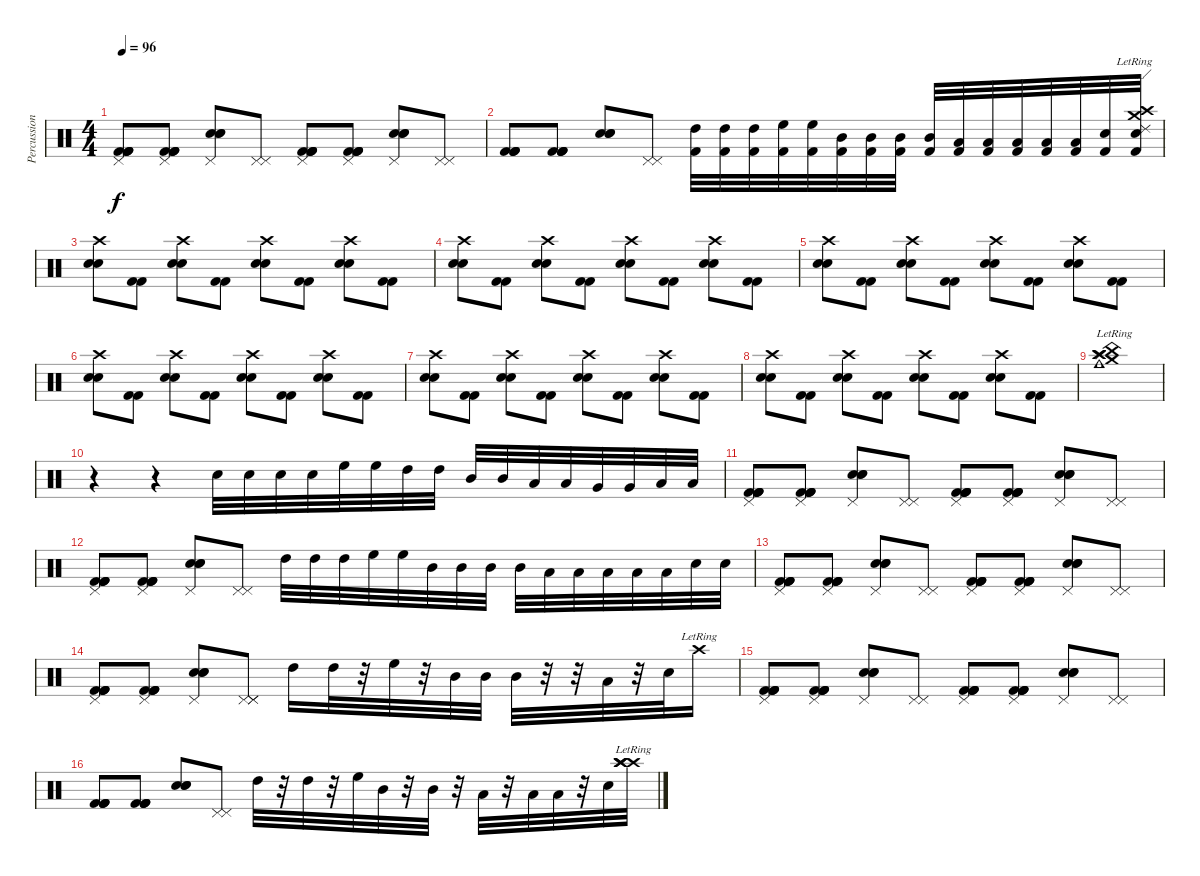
\track ("Percussion" "Percussion") {instrument percussion}
\staff {score}
\articulation defaults
\ts (4 4)
\tempo 96
\clef neutral
\ks c
("Pedal Hi-Hat (hit)" "Kick (hit) 2" "Kick (hit) 2" "Kick (hit) 2" "Kick (hit) 2").8{dy f} ("Pedal Hi-Hat (hit)" "Kick (hit) 2" "Kick (hit) 2" "Kick (hit) 2" "Kick (hit) 2").8 ("Pedal Hi-Hat (hit)" "Electric Snare (hit)" "Electric Snare (hit)" "Electric Snare (hit)").8 ("Pedal Hi-Hat (hit)" "Pedal Hi-Hat (hit)").8 ("Pedal Hi-Hat (hit)" "Kick (hit) 2" "Kick (hit) 2" "Kick (hit) 2" "Kick (hit) 2").8 ("Pedal Hi-Hat (hit)" "Kick (hit) 2" "Kick (hit) 2" "Kick (hit) 2" "Kick (hit) 2").8 ("Pedal Hi-Hat (hit)" "Electric Snare (hit)" "Electric Snare (hit)" "Electric Snare (hit)").8 ("Pedal Hi-Hat (hit)" "Pedal Hi-Hat (hit)").8 |
("Kick (hit) 2" "Kick (hit) 2" "Kick (hit) 2" "Kick (hit) 2").8 ("Kick (hit) 2" "Kick (hit) 2" "Kick (hit) 2" "Kick (hit) 2").8 ("Electric Snare (hit)" "Electric Snare (hit)" "Electric Snare (hit)").8 ("Pedal Hi-Hat (hit)" "Pedal Hi-Hat (hit)").8 ("Kick (hit) 2" "High Tom (hit)").32 ("Kick (hit) 2" "High Tom (hit)").32 ("Kick (hit) 2" "High Tom (hit)").32 ("Kick (hit) 2" "High Floor Tom (hit)").32 ("Kick (hit) 2" "High Floor Tom (hit)").32 ("Kick (hit) 2" "Mid Tom (hit)").32 ("Kick (hit) 2" "Mid Tom (hit)").32 ("Kick (hit) 2" "Mid Tom (hit)").32 ("Kick (hit) 2" "Mid Tom (hit)").32 ("Kick (hit) 2" "Low Tom (hit)").32 ("Kick (hit) 2" "Low Tom (hit)").32 ("Kick (hit) 2" "Low Tom (hit)").32 ("Kick (hit) 2" "Low Floor Tom (hit)").32 ("Kick (hit) 2" "Low Floor Tom (hit)").32 ("Kick (hit) 2" "Electric Snare (hit)").32 ("Kick (hit) 2"{lr} "Electric Snare (hit)"{lr} "Crash high (hit)"{lr} "Crash medium (hit)"{lr} "Ride (edge) 2"{lr}).32 |
("Crash high (hit)" "Electric Snare (hit)" "Electric Snare (hit)").8 ("Kick (hit) 2" "Kick (hit) 2").8 ("Crash high (hit)" "Electric Snare (hit)" "Electric Snare (hit)").8 ("Kick (hit) 2" "Kick (hit) 2").8 ("Crash high (hit)" "Electric Snare (hit)" "Electric Snare (hit)").8 ("Kick (hit) 2" "Kick (hit) 2").8 ("Crash high (hit)" "Electric Snare (hit)" "Electric Snare (hit)").8 ("Kick (hit) 2" "Kick (hit) 2").8 |
("Crash high (hit)" "Electric Snare (hit)" "Electric Snare (hit)").8 ("Kick (hit) 2" "Kick (hit) 2").8 ("Crash high (hit)" "Electric Snare (hit)" "Electric Snare (hit)").8 ("Kick (hit) 2" "Kick (hit) 2").8 ("Crash high (hit)" "Electric Snare (hit)" "Electric Snare (hit)").8 ("Kick (hit) 2" "Kick (hit) 2").8 ("Crash high (hit)" "Electric Snare (hit)" "Electric Snare (hit)").8 ("Kick (hit) 2" "Kick (hit) 2").8 |
("Crash high (hit)" "Electric Snare (hit)" "Electric Snare (hit)").8 ("Kick (hit) 2" "Kick (hit) 2").8 ("Crash high (hit)" "Electric Snare (hit)" "Electric Snare (hit)").8 ("Kick (hit) 2" "Kick (hit) 2").8 ("Crash high (hit)" "Electric Snare (hit)" "Electric Snare (hit)").8 ("Kick (hit) 2" "Kick (hit) 2").8 ("Crash high (hit)" "Electric Snare (hit)" "Electric Snare (hit)").8 ("Kick (hit) 2" "Kick (hit) 2").8 |
("Crash high (hit)" "Electric Snare (hit)" "Electric Snare (hit)").8 ("Kick (hit) 2" "Kick (hit) 2").8 ("Crash high (hit)" "Electric Snare (hit)" "Electric Snare (hit)").8 ("Kick (hit) 2" "Kick (hit) 2").8 ("Crash high (hit)" "Electric Snare (hit)" "Electric Snare (hit)").8 ("Kick (hit) 2" "Kick (hit) 2").8 ("Crash high (hit)" "Electric Snare (hit)" "Electric Snare (hit)").8 ("Kick (hit) 2" "Kick (hit) 2").8 |
("Crash high (hit)" "Electric Snare (hit)" "Electric Snare (hit)").8 ("Kick (hit) 2" "Kick (hit) 2").8 ("Crash high (hit)" "Electric Snare (hit)" "Electric Snare (hit)").8 ("Kick (hit) 2" "Kick (hit) 2").8 ("Crash high (hit)" "Electric Snare (hit)" "Electric Snare (hit)").8 ("Kick (hit) 2" "Kick (hit) 2").8 ("Crash high (hit)" "Electric Snare (hit)" "Electric Snare (hit)").8 ("Kick (hit) 2" "Kick (hit) 2").8 |
("Crash high (hit)" "Electric Snare (hit)" "Electric Snare (hit)").8 ("Kick (hit) 2" "Kick (hit) 2").8 ("Crash high (hit)" "Electric Snare (hit)" "Electric Snare (hit)").8 ("Kick (hit) 2" "Kick (hit) 2").8 ("Crash high (hit)" "Electric Snare (hit)" "Electric Snare (hit)").8 ("Kick (hit) 2" "Kick (hit) 2").8 ("Crash high (hit)" "Electric Snare (hit)" "Electric Snare (hit)").8 ("Kick (hit) 2" "Kick (hit) 2").8 |
("Cowbell medium (hit)"{lr} "Crash high (hit)"{lr} "Crash high (hit)"{lr} "Crash medium (hit)"{lr} "China (hit)"{lr} "Splash (hit)"{lr}).1 |
r.4 r.4 "Electric Snare (hit)".32 "Electric Snare (hit)".32 "Electric Snare (hit)".32 "Electric Snare (hit)".32 "High Floor Tom (hit)".32 "High Floor Tom (hit)".32 "High Tom (hit)".32 "High Tom (hit)".32 "Mid Tom (hit)".32 "Mid Tom (hit)".32 "Low Tom (hit)".32 "Low Tom (hit)".32 "Very Low Tom (hit)".32 "Very Low Tom (hit)".32 "Low Floor Tom (hit)".32 "Low Floor Tom (hit)".32 |
("Pedal Hi-Hat (hit)" "Kick (hit) 2" "Kick (hit) 2" "Kick (hit) 2" "Kick (hit) 2").8 ("Pedal Hi-Hat (hit)" "Kick (hit) 2" "Kick (hit) 2" "Kick (hit) 2" "Kick (hit) 2").8 ("Pedal Hi-Hat (hit)" "Electric Snare (hit)" "Electric Snare (hit)" "Electric Snare (hit)").8 ("Pedal Hi-Hat (hit)" "Pedal Hi-Hat (hit)").8 ("Pedal Hi-Hat (hit)" "Kick (hit) 2" "Kick (hit) 2" "Kick (hit) 2" "Kick (hit) 2").8 ("Pedal Hi-Hat (hit)" "Kick (hit) 2" "Kick (hit) 2" "Kick (hit) 2" "Kick (hit) 2").8 ("Pedal Hi-Hat (hit)" "Electric Snare (hit)" "Electric Snare (hit)" "Electric Snare (hit)").8 ("Pedal Hi-Hat (hit)" "Pedal Hi-Hat (hit)").8 |
("Pedal Hi-Hat (hit)" "Kick (hit) 2" "Kick (hit) 2" "Kick (hit) 2" "Kick (hit) 2").8 ("Pedal Hi-Hat (hit)" "Kick (hit) 2" "Kick (hit) 2" "Kick (hit) 2" "Kick (hit) 2").8 ("Pedal Hi-Hat (hit)" "Electric Snare (hit)" "Electric Snare (hit)" "Electric Snare (hit)").8 ("Pedal Hi-Hat (hit)" "Pedal Hi-Hat (hit)").8 "High Tom (hit)".32 "High Tom (hit)".32 "High Tom (hit)".32 "High Floor Tom (hit)".32 "High Floor Tom (hit)".32 "Mid Tom (hit)".32 "Mid Tom (hit)".32 "Mid Tom (hit)".32 "Mid Tom (hit)".32 "Low Tom (hit)".32 "Low Tom (hit)".32 "Low Tom (hit)".32 "Low Floor Tom (hit)".32 "Low Floor Tom (hit)".32 "Electric Snare (hit)".32 "Electric Snare (hit)".32 |
("Pedal Hi-Hat (hit)" "Kick (hit) 2" "Kick (hit) 2" "Kick (hit) 2" "Kick (hit) 2").8 ("Pedal Hi-Hat (hit)" "Kick (hit) 2" "Kick (hit) 2" "Kick (hit) 2" "Kick (hit) 2").8 ("Pedal Hi-Hat (hit)" "Electric Snare (hit)" "Electric Snare (hit)" "Electric Snare (hit)").8 ("Pedal Hi-Hat (hit)" "Pedal Hi-Hat (hit)").8 ("Pedal Hi-Hat (hit)" "Kick (hit) 2" "Kick (hit) 2" "Kick (hit) 2" "Kick (hit) 2").8 ("Pedal Hi-Hat (hit)" "Kick (hit) 2" "Kick (hit) 2" "Kick (hit) 2" "Kick (hit) 2").8 ("Pedal Hi-Hat (hit)" "Electric Snare (hit)" "Electric Snare (hit)" "Electric Snare (hit)").8 ("Pedal Hi-Hat (hit)" "Pedal Hi-Hat (hit)").8 |
("Pedal Hi-Hat (hit)" "Kick (hit) 2" "Kick (hit) 2" "Kick (hit) 2" "Kick (hit) 2").8 ("Pedal Hi-Hat (hit)" "Kick (hit) 2" "Kick (hit) 2" "Kick (hit) 2" "Kick (hit) 2").8 ("Pedal Hi-Hat (hit)" "Electric Snare (hit)" "Electric Snare (hit)" "Electric Snare (hit)").8 ("Pedal Hi-Hat (hit)" "Pedal Hi-Hat (hit)" "Pedal Hi-Hat (hit)").8 "High Tom (hit)".16 "High Tom (hit)".32 r.32 "High Floor Tom (hit)".32 r.32 "Mid Tom (hit)".32 "Mid Tom (hit)".32 "Mid Tom (hit)".32 r.32 r.32 "Low Tom (hit)".32 r.32 "Electric Snare (hit)".32 "Crash high (hit)"{lr}.16 |
("Pedal Hi-Hat (hit)" "Kick (hit) 2" "Kick (hit) 2" "Kick (hit) 2" "Kick (hit) 2").8 ("Pedal Hi-Hat (hit)" "Kick (hit) 2" "Kick (hit) 2" "Kick (hit) 2" "Kick (hit) 2").8 ("Pedal Hi-Hat (hit)" "Electric Snare (hit)" "Electric Snare (hit)" "Electric Snare (hit)").8 ("Pedal Hi-Hat (hit)" "Pedal Hi-Hat (hit)").8 ("Pedal Hi-Hat (hit)" "Kick (hit) 2" "Kick (hit) 2" "Kick (hit) 2" "Kick (hit) 2").8 ("Pedal Hi-Hat (hit)" "Kick (hit) 2" "Kick (hit) 2" "Kick (hit) 2" "Kick (hit) 2").8 ("Pedal Hi-Hat (hit)" "Electric Snare (hit)" "Electric Snare (hit)" "Electric Snare (hit)").8 ("Pedal Hi-Hat (hit)" "Pedal Hi-Hat (hit)").8 |
("Kick (hit) 2" "Kick (hit) 2" "Kick (hit) 2" "Kick (hit) 2").8 ("Kick (hit) 2" "Kick (hit) 2" "Kick (hit) 2" "Kick (hit) 2").8 ("Electric Snare (hit)" "Electric Snare (hit)" "Electric Snare (hit)").8 ("Pedal Hi-Hat (hit)" "Pedal Hi-Hat (hit)").8 "High Tom (hit)".32 r.32 "High Tom (hit)".32 r.32 "High Floor Tom (hit)".32 "Mid Tom (hit)".32 r.32 "Mid Tom (hit)".32 r.32 "Low Tom (hit)".32 r.32 "Low Tom (hit)".32 "Low Floor Tom (hit)".32 r.32 "Electric Snare (hit)".32 ("Crash high (hit)"{lr} "Crash high (hit)"{lr} "Crash high (hit)"{lr} "Crash high (hit)"{lr}).32
